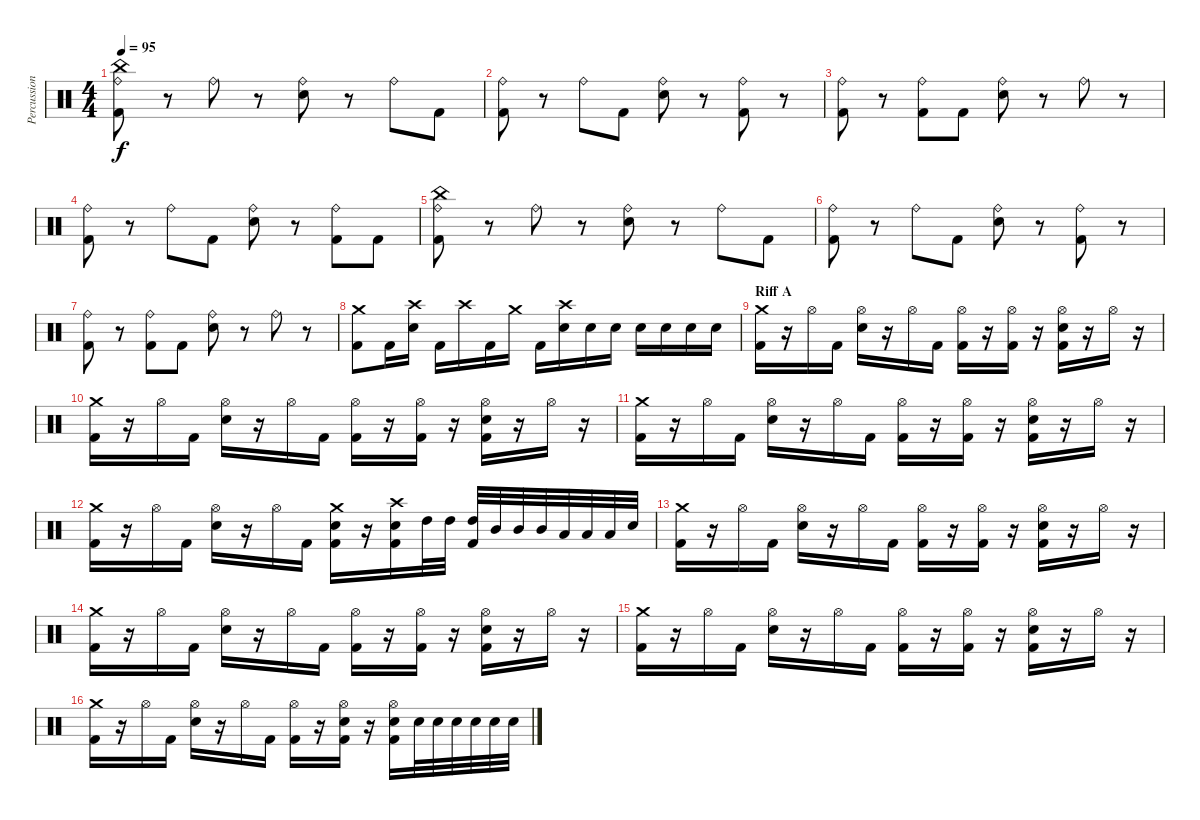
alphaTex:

\track ("Percussions" "Percussion") {instrument percussion}
\staff {score}
\articulation defaults
\ts (4 4)
\tempo 95
\clef neutral
\ks c
("Ride (bell)" "China (hit)" "Kick (hit) 2").8{dy f} r.8 "Ride (bell)".8 r.8 ("Ride (bell)" "Electric Snare (hit)").8 r.8 "Ride (bell)".8 "Kick (hit) 2".8 |
("Ride (bell)" "Kick (hit) 2").8 r.8 "Ride (bell)".8 "Kick (hit) 2".8 ("Ride (bell)" "Electric Snare (hit)").8 r.8 ("Ride (bell)" "Kick (hit) 2").8 r.8 |
("Ride (bell)" "Kick (hit) 2").8 r.8 ("Ride (bell)" "Kick (hit) 2").8 "Kick (hit) 2".8 ("Ride (bell)" "Electric Snare (hit)").8 r.8 "Ride (bell)".8 r.8 |
("Ride (bell)" "Kick (hit) 2").8 r.8 "Ride (bell)".8 "Kick (hit) 2".8 ("Ride (bell)" "Electric Snare (hit)").8 r.8 ("Ride (bell)" "Kick (hit) 2").8 "Kick (hit) 2".8 |
("Ride (bell)" "China (hit)" "Kick (hit) 2").8 r.8 "Ride (bell)".8 r.8 ("Ride (bell)" "Electric Snare (hit)").8 r.8 "Ride (bell)".8 "Kick (hit) 2".8 |
("Ride (bell)" "Kick (hit) 2").8 r.8 "Ride (bell)".8 "Kick (hit) 2".8 ("Ride (bell)" "Electric Snare (hit)").8 r.8 ("Ride (bell)" "Kick (hit) 2").8 r.8 |
("Ride (bell)" "Kick (hit) 2").8 r.8 ("Ride (bell)" "Kick (hit) 2").8 "Kick (hit) 2".8 ("Ride (bell)" "Electric Snare (hit)").8 r.8 "Ride (bell)".8 r.8 |
("Crash medium (hit)" "Kick (hit) 2").8 "Kick (hit) 2".16 ("Crash high (hit)" "Electric Snare (hit)").16 "Kick (hit) 2".16 "Crash high (hit)".16 "Kick (hit) 2".16 "Crash medium (hit)".16 "Kick (hit) 2".16 ("Crash high (hit)" "Electric Snare (hit)").16 "Electric Snare (hit)".16 "Electric Snare (hit)".16 "Electric Snare (hit)".16 "Electric Snare (hit)".16 "Electric Snare (hit)".16 "Electric Snare (hit)".16 |
\section ("" "Riff A")
("Crash medium (hit)" "Kick (hit) 2").16 r.16 "Hi-Hat (open)".16 "Kick (hit) 2".16 ("Hi-Hat (open)" "Electric Snare (hit)").16 r.16 "Hi-Hat (open)".16 "Kick (hit) 2".16 ("Hi-Hat (open)" "Kick (hit) 2").16 r.16 ("Hi-Hat (open)" "Kick (hit) 2").16 r.16 ("Hi-Hat (open)" "Electric Snare (hit)" "Kick (hit) 2").16 r.16 "Hi-Hat (open)".16 r.16 |
("Crash medium (hit)" "Kick (hit) 2").16 r.16 "Hi-Hat (open)".16 "Kick (hit) 2".16 ("Hi-Hat (open)" "Electric Snare (hit)").16 r.16 "Hi-Hat (open)".16 "Kick (hit) 2".16 ("Hi-Hat (open)" "Kick (hit) 2").16 r.16 ("Hi-Hat (open)" "Kick (hit) 2").16 r.16 ("Hi-Hat (open)" "Electric Snare (hit)" "Kick (hit) 2").16 r.16 "Hi-Hat (open)".16 r.16 |
("Crash medium (hit)" "Kick (hit) 2").16 r.16 "Hi-Hat (open)".16 "Kick (hit) 2".16 ("Hi-Hat (open)" "Electric Snare (hit)").16 r.16 "Hi-Hat (open)".16 "Kick (hit) 2".16 ("Hi-Hat (open)" "Kick (hit) 2").16 r.16 ("Hi-Hat (open)" "Kick (hit) 2").16 r.16 ("Hi-Hat (open)" "Electric Snare (hit)" "Kick (hit) 2").16 r.16 "Hi-Hat (open)".16 r.16 |
("Crash medium (hit)" "Kick (hit) 2").16 r.16 "Hi-Hat (open)".16 "Kick (hit) 2".16 ("Hi-Hat (open)" "Electric Snare (hit)").16 r.16 "Hi-Hat (open)".16 "Kick (hit) 2".16 ("Crash medium (hit)" "Electric Snare (hit)" "Kick (hit) 2").16 r.16 ("Crash high (hit)" "Electric Snare (hit)" "Kick (hit) 2").16 "High Tom (hit)".32 "High Tom (hit)".32 ("High Tom (hit)" "Kick (hit) 2").32 "Mid Tom (hit)".32 "Mid Tom (hit)".32 "Mid Tom (hit)".32 "Low Tom (hit)".32 "Low Tom (hit)".32 "Low Tom (hit)".32 "Electric Snare (hit)".32 |
("Crash medium (hit)" "Kick (hit) 2").16 r.16 "Hi-Hat (open)".16 "Kick (hit) 2".16 ("Hi-Hat (open)" "Electric Snare (hit)").16 r.16 "Hi-Hat (open)".16 "Kick (hit) 2".16 ("Hi-Hat (open)" "Kick (hit) 2").16 r.16 ("Hi-Hat (open)" "Kick (hit) 2").16 r.16 ("Hi-Hat (open)" "Electric Snare (hit)" "Kick (hit) 2").16 r.16 "Hi-Hat (open)".16 r.16 |
("Crash medium (hit)" "Kick (hit) 2").16 r.16 "Hi-Hat (open)".16 "Kick (hit) 2".16 ("Hi-Hat (open)" "Electric Snare (hit)").16 r.16 "Hi-Hat (open)".16 "Kick (hit) 2".16 ("Hi-Hat (open)" "Kick (hit) 2").16 r.16 ("Hi-Hat (open)" "Kick (hit) 2").16 r.16 ("Hi-Hat (open)" "Electric Snare (hit)" "Kick (hit) 2").16 r.16 "Hi-Hat (open)".16 r.16 |
("Crash medium (hit)" "Kick (hit) 2").16 r.16 "Hi-Hat (open)".16 "Kick (hit) 2".16 ("Hi-Hat (open)" "Electric Snare (hit)").16 r.16 "Hi-Hat (open)".16 "Kick (hit) 2".16 ("Hi-Hat (open)" "Kick (hit) 2").16 r.16 ("Hi-Hat (open)" "Kick (hit) 2").16 r.16 ("Hi-Hat (open)" "Electric Snare (hit)" "Kick (hit) 2").16 r.16 "Hi-Hat (open)".16 r.16 |
("Crash medium (hit)" "Kick (hit) 2").16 r.16 "Hi-Hat (open)".16 "Kick (hit) 2".16 ("Hi-Hat (open)" "Electric Snare (hit)").16 r.16 "Hi-Hat (open)".16 "Kick (hit) 2".16 ("Hi-Hat (open)" "Kick (hit) 2").16 r.16 ("Hi-Hat (open)" "Electric Snare (hit)" "Kick (hit) 2").16 r.16 ("Hi-Hat (open)" "Electric Snare (hit)" "Kick (hit) 2").16 "Electric Snare (hit)".32 "Electric Snare (hit)".32 "Electric Snare (hit)".32 "Electric Snare (hit)".32 "Electric Snare (hit)".32 "Electric Snare (hit)".32
